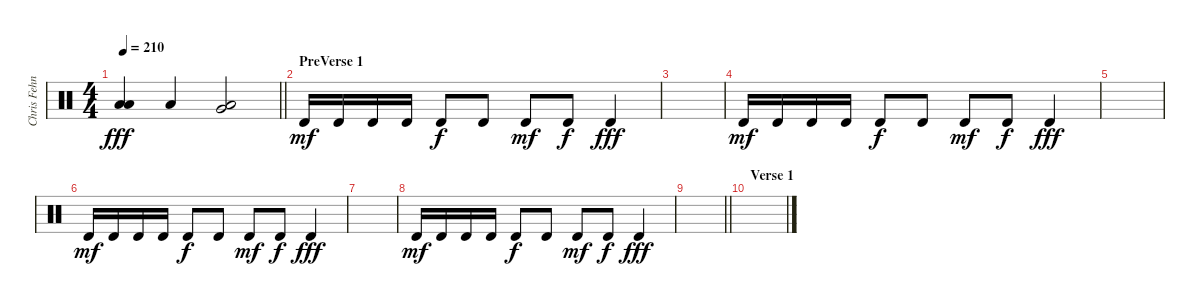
\track ("Chris Fehn" "Chris Fehn") {instrument percussion}
\staff {score}
\articulation defaults
\ts (4 4)
\tempo 210
\clef neutral
\barLineRight lightlight
\ks c
("Low Floor Tom (hit)" "Low Floor Tom (hit)").4{dy fff} "Low Floor Tom (hit)".4 ("Very Low Tom (hit)" "Low Floor Tom (hit)").2 |
\section ("" "PreVerse 1")
"Timbale high (hit)".16{dy mf} "Timbale high (hit)".16 "Timbale high (hit)".16 "Timbale high (hit)".16 "Timbale high (hit)".8{dy f} "Timbale high (hit)".8 "Timbale high (hit)".8{dy mf} "Timbale high (hit)".8{dy f} "Timbale high (hit)".4{dy fff} |
|
"Timbale high (hit)".16{dy mf} "Timbale high (hit)".16 "Timbale high (hit)".16 "Timbale high (hit)".16 "Timbale high (hit)".8{dy f} "Timbale high (hit)".8 "Timbale high (hit)".8{dy mf} "Timbale high (hit)".8{dy f} "Timbale high (hit)".4{dy fff} |
|
"Timbale high (hit)".16{dy mf} "Timbale high (hit)".16 "Timbale high (hit)".16 "Timbale high (hit)".16 "Timbale high (hit)".8{dy f} "Timbale high (hit)".8 "Timbale high (hit)".8{dy mf} "Timbale high (hit)".8{dy f} "Timbale high (hit)".4{dy fff} |
|
"Timbale high (hit)".16{dy mf} "Timbale high (hit)".16 "Timbale high (hit)".16 "Timbale high (hit)".16 "Timbale high (hit)".8{dy f} "Timbale high (hit)".8 "Timbale high (hit)".8{dy mf} "Timbale high (hit)".8{dy f} "Timbale high (hit)".4{dy fff} |
\barLineRight lightlight
|
\section ("" "Verse 1")
